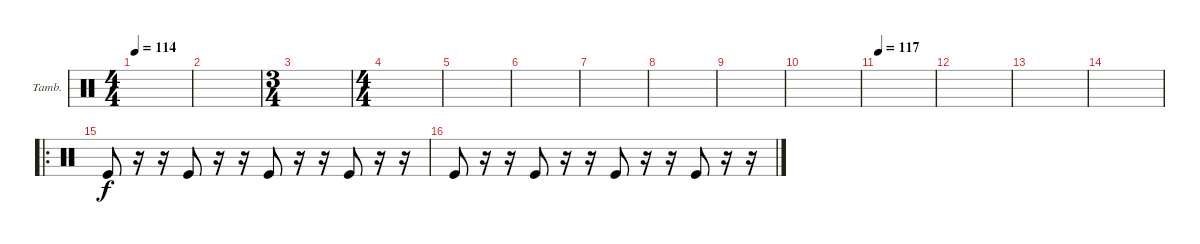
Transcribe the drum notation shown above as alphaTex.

\defaultSystemsLayout 4
\bracketExtendMode groupsimilarinstruments
\firstSystemTrackNameOrientation horizontal
\otherSystemsTrackNameOrientation horizontal
\track ("Tambourine" "Tamb.") {instrument percussion}
\staff {score}
\articulation defaults
\ts (4 4)
\tempo 114
\clef neutral
\ks c
|
|
\ts (3 4)
|
\ts (4 4)
|
|
|
|
|
|
|
\tempo 117
|
|
|
|
\ro "Kick (hit)".8
r.16 r.16 "Kick (hit)".8 r.16 r.16 "Kick (hit)".8 r.16 r.16 "Kick (hit)".8 r.16 r.16 |
"Kick (hit)".8 r.16 r.16 "Kick (hit)".8 r.16 r.16 "Kick (hit)".8 r.16 r.16 "Kick (hit)".8 r.16 r.16
